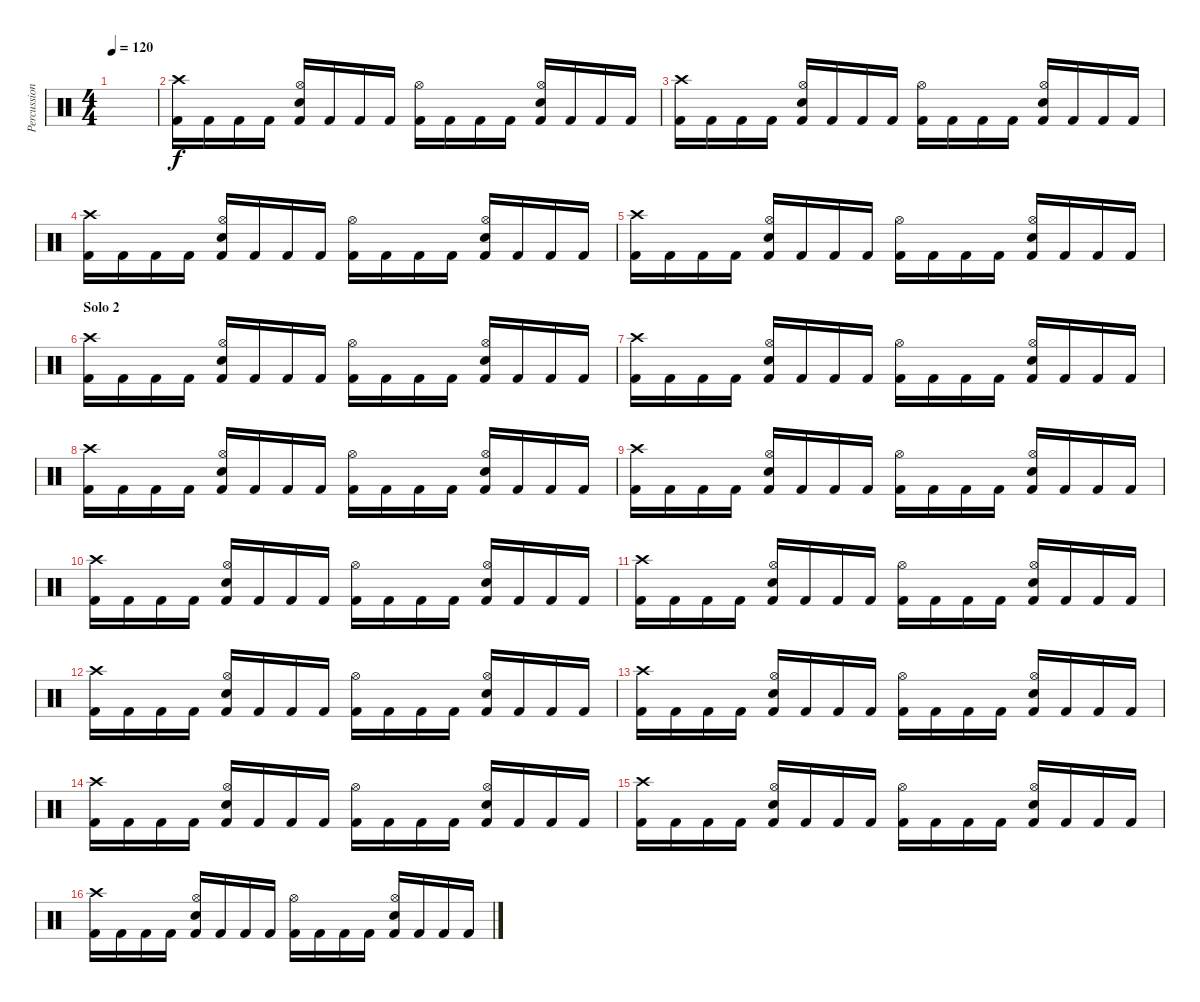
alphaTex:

\track ("Percussion" "Percussion") {instrument percussion}
\staff {score}
\articulation defaults
\ts (4 4)
\tempo 120
\clef neutral
\ks c
|
("Crash high (hit)" "Kick (hit) 2").16 "Kick (hit) 2".16 "Kick (hit) 2".16 "Kick (hit) 2".16 ("Hi-Hat (open)" "Electric Snare (hit)" "Kick (hit) 2").16 "Kick (hit) 2".16 "Kick (hit) 2".16 "Kick (hit) 2".16 ("Hi-Hat (open)" "Kick (hit) 2").16 "Kick (hit) 2".16 "Kick (hit) 2".16 "Kick (hit) 2".16 ("Hi-Hat (open)" "Electric Snare (hit)" "Kick (hit) 2").16 "Kick (hit) 2".16 "Kick (hit) 2".16 "Kick (hit) 2".16 |
("Crash high (hit)" "Kick (hit) 2").16 "Kick (hit) 2".16 "Kick (hit) 2".16 "Kick (hit) 2".16 ("Hi-Hat (open)" "Electric Snare (hit)" "Kick (hit) 2").16 "Kick (hit) 2".16 "Kick (hit) 2".16 "Kick (hit) 2".16 ("Hi-Hat (open)" "Kick (hit) 2").16 "Kick (hit) 2".16 "Kick (hit) 2".16 "Kick (hit) 2".16 ("Hi-Hat (open)" "Electric Snare (hit)" "Kick (hit) 2").16 "Kick (hit) 2".16 "Kick (hit) 2".16 "Kick (hit) 2".16 |
("Crash high (hit)" "Kick (hit) 2").16 "Kick (hit) 2".16 "Kick (hit) 2".16 "Kick (hit) 2".16 ("Hi-Hat (open)" "Electric Snare (hit)" "Kick (hit) 2").16 "Kick (hit) 2".16 "Kick (hit) 2".16 "Kick (hit) 2".16 ("Hi-Hat (open)" "Kick (hit) 2").16 "Kick (hit) 2".16 "Kick (hit) 2".16 "Kick (hit) 2".16 ("Hi-Hat (open)" "Electric Snare (hit)" "Kick (hit) 2").16 "Kick (hit) 2".16 "Kick (hit) 2".16 "Kick (hit) 2".16 |
("Crash high (hit)" "Kick (hit) 2").16 "Kick (hit) 2".16 "Kick (hit) 2".16 "Kick (hit) 2".16 ("Hi-Hat (open)" "Electric Snare (hit)" "Kick (hit) 2").16 "Kick (hit) 2".16 "Kick (hit) 2".16 "Kick (hit) 2".16 ("Hi-Hat (open)" "Kick (hit) 2").16 "Kick (hit) 2".16 "Kick (hit) 2".16 "Kick (hit) 2".16 ("Hi-Hat (open)" "Electric Snare (hit)" "Kick (hit) 2").16 "Kick (hit) 2".16 "Kick (hit) 2".16 "Kick (hit) 2".16 |
\section ("" "Solo 2")
("Crash high (hit)" "Kick (hit) 2").16 "Kick (hit) 2".16 "Kick (hit) 2".16 "Kick (hit) 2".16 ("Hi-Hat (open)" "Electric Snare (hit)" "Kick (hit) 2").16 "Kick (hit) 2".16 "Kick (hit) 2".16 "Kick (hit) 2".16 ("Hi-Hat (open)" "Kick (hit) 2").16 "Kick (hit) 2".16 "Kick (hit) 2".16 "Kick (hit) 2".16 ("Hi-Hat (open)" "Electric Snare (hit)" "Kick (hit) 2").16 "Kick (hit) 2".16 "Kick (hit) 2".16 "Kick (hit) 2".16 |
("Crash high (hit)" "Kick (hit) 2").16 "Kick (hit) 2".16 "Kick (hit) 2".16 "Kick (hit) 2".16 ("Hi-Hat (open)" "Electric Snare (hit)" "Kick (hit) 2").16 "Kick (hit) 2".16 "Kick (hit) 2".16 "Kick (hit) 2".16 ("Hi-Hat (open)" "Kick (hit) 2").16 "Kick (hit) 2".16 "Kick (hit) 2".16 "Kick (hit) 2".16 ("Hi-Hat (open)" "Electric Snare (hit)" "Kick (hit) 2").16 "Kick (hit) 2".16 "Kick (hit) 2".16 "Kick (hit) 2".16 |
("Crash high (hit)" "Kick (hit) 2").16 "Kick (hit) 2".16 "Kick (hit) 2".16 "Kick (hit) 2".16 ("Hi-Hat (open)" "Electric Snare (hit)" "Kick (hit) 2").16 "Kick (hit) 2".16 "Kick (hit) 2".16 "Kick (hit) 2".16 ("Hi-Hat (open)" "Kick (hit) 2").16 "Kick (hit) 2".16 "Kick (hit) 2".16 "Kick (hit) 2".16 ("Hi-Hat (open)" "Electric Snare (hit)" "Kick (hit) 2").16 "Kick (hit) 2".16 "Kick (hit) 2".16 "Kick (hit) 2".16 |
("Crash high (hit)" "Kick (hit) 2").16 "Kick (hit) 2".16 "Kick (hit) 2".16 "Kick (hit) 2".16 ("Hi-Hat (open)" "Electric Snare (hit)" "Kick (hit) 2").16 "Kick (hit) 2".16 "Kick (hit) 2".16 "Kick (hit) 2".16 ("Hi-Hat (open)" "Kick (hit) 2").16 "Kick (hit) 2".16 "Kick (hit) 2".16 "Kick (hit) 2".16 ("Hi-Hat (open)" "Electric Snare (hit)" "Kick (hit) 2").16 "Kick (hit) 2".16 "Kick (hit) 2".16 "Kick (hit) 2".16 |
("Crash high (hit)" "Kick (hit) 2").16 "Kick (hit) 2".16 "Kick (hit) 2".16 "Kick (hit) 2".16 ("Hi-Hat (open)" "Electric Snare (hit)" "Kick (hit) 2").16 "Kick (hit) 2".16 "Kick (hit) 2".16 "Kick (hit) 2".16 ("Hi-Hat (open)" "Kick (hit) 2").16 "Kick (hit) 2".16 "Kick (hit) 2".16 "Kick (hit) 2".16 ("Hi-Hat (open)" "Electric Snare (hit)" "Kick (hit) 2").16 "Kick (hit) 2".16 "Kick (hit) 2".16 "Kick (hit) 2".16 |
("Crash high (hit)" "Kick (hit) 2").16 "Kick (hit) 2".16 "Kick (hit) 2".16 "Kick (hit) 2".16 ("Hi-Hat (open)" "Electric Snare (hit)" "Kick (hit) 2").16 "Kick (hit) 2".16 "Kick (hit) 2".16 "Kick (hit) 2".16 ("Hi-Hat (open)" "Kick (hit) 2").16 "Kick (hit) 2".16 "Kick (hit) 2".16 "Kick (hit) 2".16 ("Hi-Hat (open)" "Electric Snare (hit)" "Kick (hit) 2").16 "Kick (hit) 2".16 "Kick (hit) 2".16 "Kick (hit) 2".16 |
("Crash high (hit)" "Kick (hit) 2").16 "Kick (hit) 2".16 "Kick (hit) 2".16 "Kick (hit) 2".16 ("Hi-Hat (open)" "Electric Snare (hit)" "Kick (hit) 2").16 "Kick (hit) 2".16 "Kick (hit) 2".16 "Kick (hit) 2".16 ("Hi-Hat (open)" "Kick (hit) 2").16 "Kick (hit) 2".16 "Kick (hit) 2".16 "Kick (hit) 2".16 ("Hi-Hat (open)" "Electric Snare (hit)" "Kick (hit) 2").16 "Kick (hit) 2".16 "Kick (hit) 2".16 "Kick (hit) 2".16 |
("Crash high (hit)" "Kick (hit) 2").16 "Kick (hit) 2".16 "Kick (hit) 2".16 "Kick (hit) 2".16 ("Hi-Hat (open)" "Electric Snare (hit)" "Kick (hit) 2").16 "Kick (hit) 2".16 "Kick (hit) 2".16 "Kick (hit) 2".16 ("Hi-Hat (open)" "Kick (hit) 2").16 "Kick (hit) 2".16 "Kick (hit) 2".16 "Kick (hit) 2".16 ("Hi-Hat (open)" "Electric Snare (hit)" "Kick (hit) 2").16 "Kick (hit) 2".16 "Kick (hit) 2".16 "Kick (hit) 2".16 |
("Crash high (hit)" "Kick (hit) 2").16 "Kick (hit) 2".16 "Kick (hit) 2".16 "Kick (hit) 2".16 ("Hi-Hat (open)" "Electric Snare (hit)" "Kick (hit) 2").16 "Kick (hit) 2".16 "Kick (hit) 2".16 "Kick (hit) 2".16 ("Hi-Hat (open)" "Kick (hit) 2").16 "Kick (hit) 2".16 "Kick (hit) 2".16 "Kick (hit) 2".16 ("Hi-Hat (open)" "Electric Snare (hit)" "Kick (hit) 2").16 "Kick (hit) 2".16 "Kick (hit) 2".16 "Kick (hit) 2".16 |
("Crash high (hit)" "Kick (hit) 2").16 "Kick (hit) 2".16 "Kick (hit) 2".16 "Kick (hit) 2".16 ("Hi-Hat (open)" "Electric Snare (hit)" "Kick (hit) 2").16 "Kick (hit) 2".16 "Kick (hit) 2".16 "Kick (hit) 2".16 ("Hi-Hat (open)" "Kick (hit) 2").16 "Kick (hit) 2".16 "Kick (hit) 2".16 "Kick (hit) 2".16 ("Hi-Hat (open)" "Electric Snare (hit)" "Kick (hit) 2").16 "Kick (hit) 2".16 "Kick (hit) 2".16 "Kick (hit) 2".16 |
("Crash high (hit)" "Kick (hit) 2").16 "Kick (hit) 2".16 "Kick (hit) 2".16 "Kick (hit) 2".16 ("Hi-Hat (open)" "Electric Snare (hit)" "Kick (hit) 2").16 "Kick (hit) 2".16 "Kick (hit) 2".16 "Kick (hit) 2".16 ("Hi-Hat (open)" "Kick (hit) 2").16 "Kick (hit) 2".16 "Kick (hit) 2".16 "Kick (hit) 2".16 ("Hi-Hat (open)" "Electric Snare (hit)" "Kick (hit) 2").16 "Kick (hit) 2".16 "Kick (hit) 2".16 "Kick (hit) 2".16
